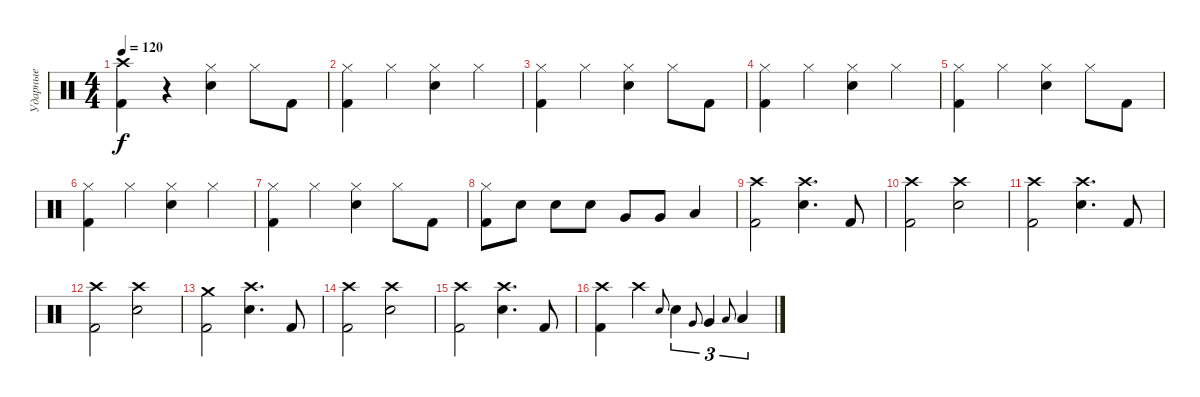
\track ("Ударные" "Ударные") {instrument percussion}
\staff {score}
\articulation defaults
\ts (4 4)
\tempo 120
\clef neutral
\ks c
("Crash high (hit)" "Kick (hit) 2").4{dy f} r.4 ("Hi-Hat (closed)" "Snare (hit) 2").4 "Hi-Hat (closed)".8 "Kick (hit) 2".8 |
("Hi-Hat (closed)" "Kick (hit) 2").4 "Hi-Hat (closed)".4 ("Hi-Hat (closed)" "Snare (hit) 2").4 "Hi-Hat (closed)".4 |
("Hi-Hat (closed)" "Kick (hit) 2").4 "Hi-Hat (closed)".4 ("Hi-Hat (closed)" "Snare (hit) 2").4 "Hi-Hat (closed)".8 "Kick (hit) 2".8 |
("Hi-Hat (closed)" "Kick (hit) 2").4 "Hi-Hat (closed)".4 ("Hi-Hat (closed)" "Snare (hit) 2").4 "Hi-Hat (closed)".4 |
("Hi-Hat (closed)" "Kick (hit) 2").4 "Hi-Hat (closed)".4 ("Hi-Hat (closed)" "Snare (hit) 2").4 "Hi-Hat (closed)".8 "Kick (hit) 2".8 |
("Hi-Hat (closed)" "Kick (hit) 2").4 "Hi-Hat (closed)".4 ("Hi-Hat (closed)" "Snare (hit) 2").4 "Hi-Hat (closed)".4 |
("Hi-Hat (closed)" "Kick (hit) 2").4 "Hi-Hat (closed)".4 ("Hi-Hat (closed)" "Snare (hit) 2").4 "Hi-Hat (closed)".8 "Kick (hit) 2".8 |
("Hi-Hat (closed)" "Kick (hit) 2").8 "Snare (hit) 2".8 "Snare (hit) 2".8 "Snare (hit) 2".8 "Very Low Tom (hit)".8 "Very Low Tom (hit)".8 "Low Floor Tom (hit)".4 |
("Crash high (hit)" "Kick (hit) 2").2 ("Crash high (hit)" "Snare (hit) 2").4{d} "Kick (hit) 2".8 |
("Crash high (hit)" "Kick (hit) 2").2 ("Crash high (hit)" "Snare (hit) 2").2 |
("Crash high (hit)" "Kick (hit) 2").2 ("Crash high (hit)" "Snare (hit) 2").4{d} "Kick (hit) 2".8 |
("Crash high (hit)" "Kick (hit) 2").2 ("Crash high (hit)" "Snare (hit) 2").2 |
("Crash medium (hit)" "Kick (hit) 2").2 ("Crash high (hit)" "Snare (hit) 2").4{d} "Kick (hit) 2".8 |
("Crash high (hit)" "Kick (hit) 2").2 ("Crash high (hit)" "Snare (hit) 2").2 |
("Crash high (hit)" "Kick (hit) 2").2 ("Crash high (hit)" "Snare (hit) 2").4{d} "Kick (hit) 2".8 |
("Crash high (hit)" "Kick (hit) 2").4 "Crash high (hit)".4 "Snare (hit) 2".8{gr onbeat} "Snare (hit) 2".4{tu (3 2)} "Very Low Tom (hit)".8{gr onbeat} "Very Low Tom (hit)".4{tu (3 2)} "Low Floor Tom (hit)".8{gr onbeat} "Low Floor Tom (hit)".4{tu (3 2)}
